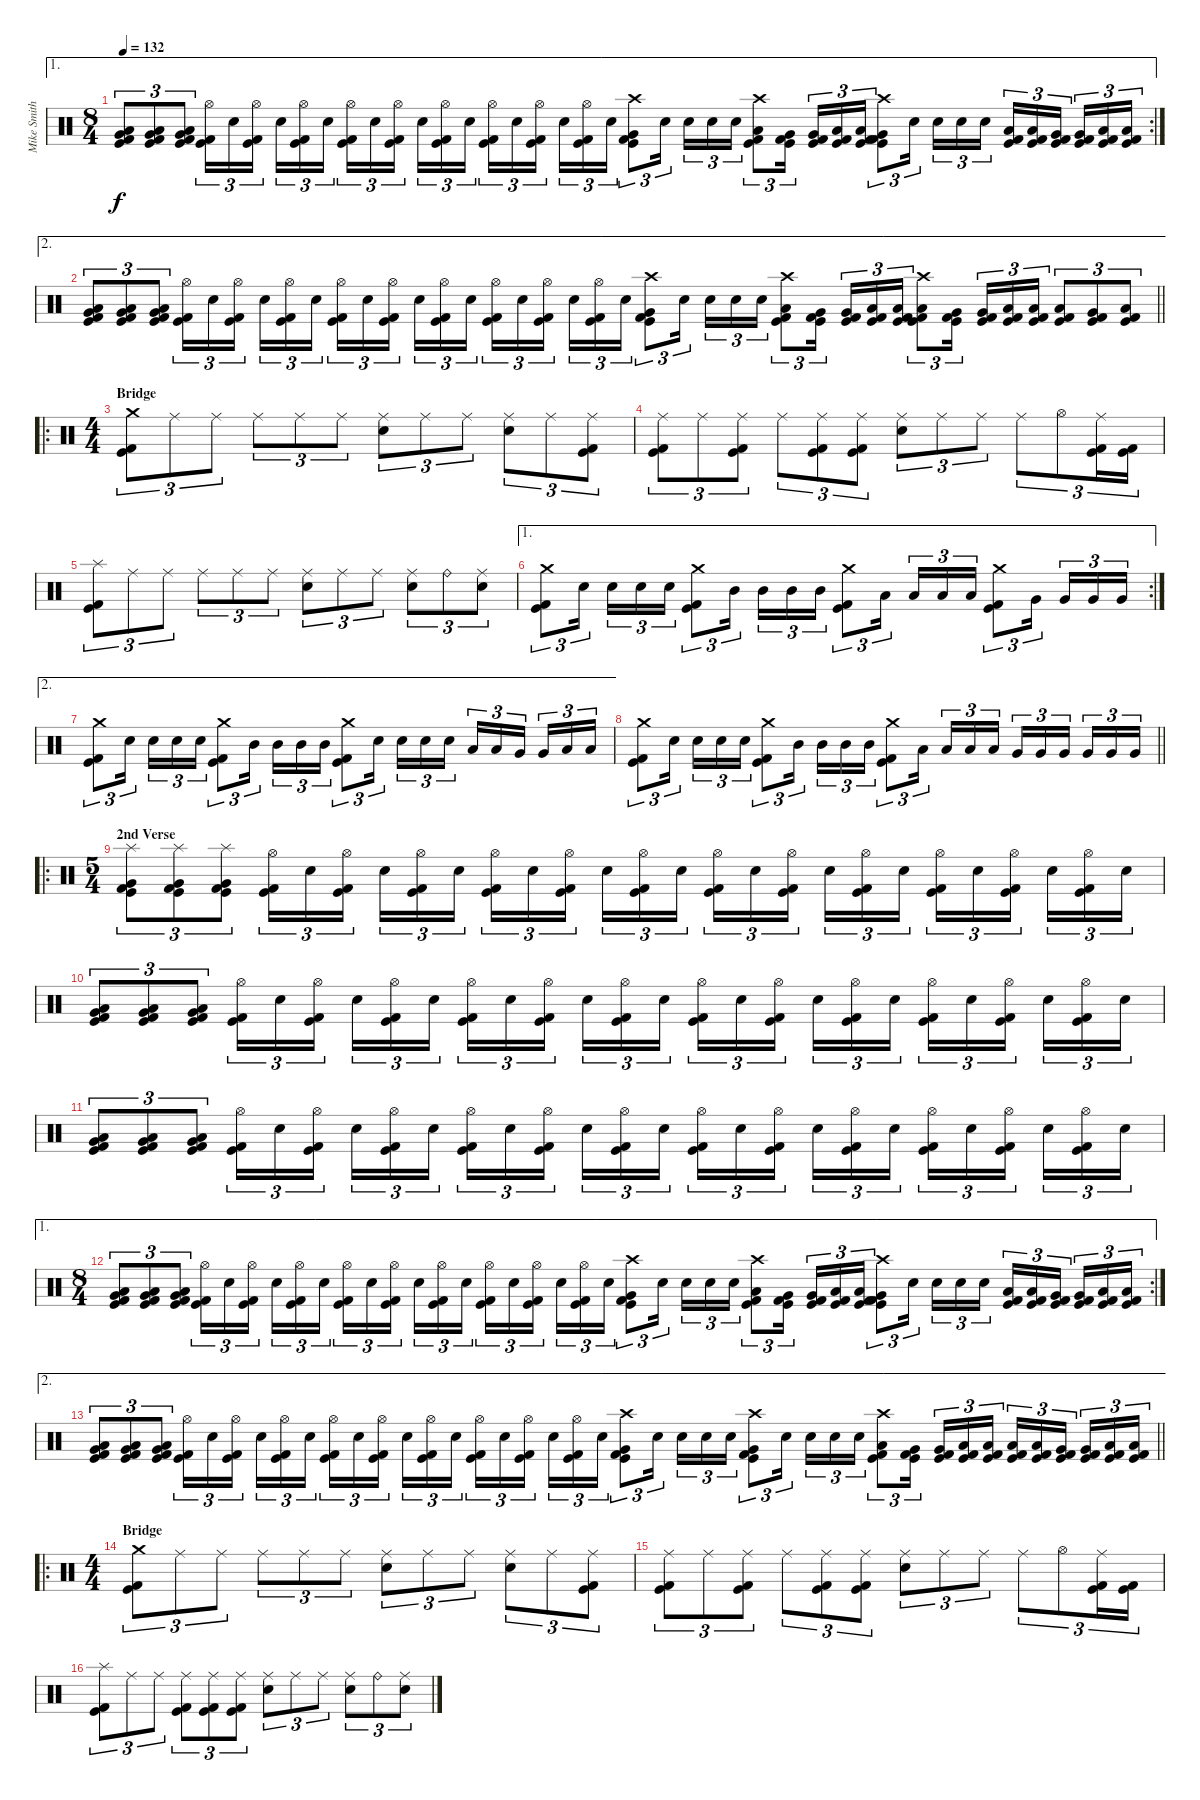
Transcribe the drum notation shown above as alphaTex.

\track ("Mike Smith" "Mike Smith") {instrument percussion}
\staff {score}
\articulation defaults
\ae 1
\rc 2
\ts (8 4)
\tempo 132
\clef neutral
\ks c
("Very Low Tom (hit)" "Low Floor Tom (hit)" "Kick (hit)" "Kick (hit) 2").8{tu (3 2) dy f} ("Very Low Tom (hit)" "Low Floor Tom (hit)" "Kick (hit)" "Kick (hit) 2").8{tu (3 2)} ("Very Low Tom (hit)" "Low Floor Tom (hit)" "Kick (hit)" "Kick (hit) 2").8{tu (3 2)} ("Hi-Hat (open)" "Kick (hit)" "Kick (hit) 2").16{tu (3 2)} "Electric Snare (hit)".16{tu (3 2)} ("Hi-Hat (open)" "Kick (hit)" "Kick (hit) 2").16{tu (3 2) beam splitsecondary} "Electric Snare (hit)".16{tu (3 2)} ("Hi-Hat (open)" "Kick (hit)" "Kick (hit) 2").16{tu (3 2)} "Electric Snare (hit)".16{tu (3 2)} ("Hi-Hat (open)" "Kick (hit)" "Kick (hit) 2").16{tu (3 2)} "Electric Snare (hit)".16{tu (3 2)} ("Hi-Hat (open)" "Kick (hit)" "Kick (hit) 2").16{tu (3 2) beam splitsecondary} "Electric Snare (hit)".16{tu (3 2)} ("Hi-Hat (open)" "Kick (hit)" "Kick (hit) 2").16{tu (3 2)} "Electric Snare (hit)".16{tu (3 2)} ("Hi-Hat (open)" "Kick (hit)" "Kick (hit) 2").16{tu (3 2)} "Electric Snare (hit)".16{tu (3 2)} ("Hi-Hat (open)" "Kick (hit)" "Kick (hit) 2").16{tu (3 2) beam splitsecondary} "Electric Snare (hit)".16{tu (3 2)} ("Hi-Hat (open)" "Kick (hit)" "Kick (hit) 2").16{tu (3 2)} "Electric Snare (hit)".16{tu (3 2)} ("Crash high (hit)" "Very Low Tom (hit)" "Kick (hit)" "Kick (hit) 2").8{tu (3 2)} "Electric Snare (hit)".16{tu (3 2) beam splitsecondary} "Electric Snare (hit)".16{tu (3 2)} "Electric Snare (hit)".16{tu (3 2)} "Electric Snare (hit)".16{tu (3 2)} ("Crash high (hit)" "Low Floor Tom (hit)" "Kick (hit)" "Kick (hit) 2").8{tu (3 2)} ("Very Low Tom (hit)" "Kick (hit)" "Kick (hit) 2").16{tu (3 2) beam splitsecondary} ("Very Low Tom (hit)" "Kick (hit)" "Kick (hit) 2").16{tu (3 2)} ("Low Floor Tom (hit)" "Kick (hit)" "Kick (hit) 2").16{tu (3 2)} ("Low Floor Tom (hit)" "Kick (hit)" "Kick (hit) 2").16{tu (3 2)} ("Crash high (hit)" "Very Low Tom (hit)" "Kick (hit)" "Kick (hit) 2").8{tu (3 2)} "Electric Snare (hit)".16{tu (3 2) beam splitsecondary} "Electric Snare (hit)".16{tu (3 2)} "Electric Snare (hit)".16{tu (3 2)} "Electric Snare (hit)".16{tu (3 2)} ("Low Tom (hit)" "Kick (hit)" "Kick (hit) 2").16{tu (3 2)} ("Low Tom (hit)" "Kick (hit)" "Kick (hit) 2").16{tu (3 2)} ("Very Low Tom (hit)" "Kick (hit)" "Kick (hit) 2").16{tu (3 2) beam splitsecondary} ("Very Low Tom (hit)" "Kick (hit)" "Kick (hit) 2").16{tu (3 2)} ("Low Floor Tom (hit)" "Kick (hit)" "Kick (hit) 2").16{tu (3 2)} ("Low Floor Tom (hit)" "Kick (hit)" "Kick (hit) 2").16{tu (3 2)} |
\ae 2
\barLineRight lightlight
("Very Low Tom (hit)" "Low Floor Tom (hit)" "Kick (hit)" "Kick (hit) 2").8{tu (3 2)} ("Very Low Tom (hit)" "Low Floor Tom (hit)" "Kick (hit)" "Kick (hit) 2").8{tu (3 2)} ("Very Low Tom (hit)" "Low Floor Tom (hit)" "Kick (hit)" "Kick (hit) 2").8{tu (3 2)} ("Hi-Hat (open)" "Kick (hit)" "Kick (hit) 2").16{tu (3 2)} "Electric Snare (hit)".16{tu (3 2)} ("Hi-Hat (open)" "Kick (hit)" "Kick (hit) 2").16{tu (3 2) beam splitsecondary} "Electric Snare (hit)".16{tu (3 2)} ("Hi-Hat (open)" "Kick (hit)" "Kick (hit) 2").16{tu (3 2)} "Electric Snare (hit)".16{tu (3 2)} ("Hi-Hat (open)" "Kick (hit)" "Kick (hit) 2").16{tu (3 2)} "Electric Snare (hit)".16{tu (3 2)} ("Hi-Hat (open)" "Kick (hit)" "Kick (hit) 2").16{tu (3 2) beam splitsecondary} "Electric Snare (hit)".16{tu (3 2)} ("Hi-Hat (open)" "Kick (hit)" "Kick (hit) 2").16{tu (3 2)} "Electric Snare (hit)".16{tu (3 2)} ("Hi-Hat (open)" "Kick (hit)" "Kick (hit) 2").16{tu (3 2)} "Electric Snare (hit)".16{tu (3 2)} ("Hi-Hat (open)" "Kick (hit)" "Kick (hit) 2").16{tu (3 2) beam splitsecondary} "Electric Snare (hit)".16{tu (3 2)} ("Hi-Hat (open)" "Kick (hit)" "Kick (hit) 2").16{tu (3 2)} "Electric Snare (hit)".16{tu (3 2)} ("Crash high (hit)" "Very Low Tom (hit)" "Kick (hit)" "Kick (hit) 2").8{tu (3 2)} "Electric Snare (hit)".16{tu (3 2) beam splitsecondary} "Electric Snare (hit)".16{tu (3 2)} "Electric Snare (hit)".16{tu (3 2)} "Electric Snare (hit)".16{tu (3 2)} ("Crash high (hit)" "Low Floor Tom (hit)" "Kick (hit)" "Kick (hit) 2").8{tu (3 2)} ("Very Low Tom (hit)" "Kick (hit)" "Kick (hit) 2").16{tu (3 2) beam splitsecondary} ("Very Low Tom (hit)" "Kick (hit)" "Kick (hit) 2").16{tu (3 2)} ("Low Floor Tom (hit)" "Kick (hit)" "Kick (hit) 2").16{tu (3 2)} ("Low Floor Tom (hit)" "Kick (hit)" "Kick (hit) 2").16{tu (3 2)} ("Crash high (hit)" "Low Floor Tom (hit)" "Kick (hit)" "Kick (hit) 2").8{tu (3 2)} ("Very Low Tom (hit)" "Kick (hit)" "Kick (hit) 2").16{tu (3 2) beam splitsecondary} ("Very Low Tom (hit)" "Kick (hit)" "Kick (hit) 2").16{tu (3 2)} ("Low Floor Tom (hit)" "Kick (hit)" "Kick (hit) 2").16{tu (3 2)} ("Low Floor Tom (hit)" "Kick (hit)" "Kick (hit) 2").16{tu (3 2)} ("Low Tom (hit)" "Kick (hit)" "Kick (hit) 2").8{tu (3 2)} ("Very Low Tom (hit)" "Kick (hit)" "Kick (hit) 2").8{tu (3 2)} ("Low Floor Tom (hit)" "Kick (hit)" "Kick (hit) 2").8{tu (3 2)} |
\ro
\ts (4 4)
\section ("" "Bridge")
("Crash medium (hit)" "Kick (hit)" "Kick (hit) 2").8{tu (3 2)} "Ride (middle)".8{tu (3 2)} "Ride (middle)".8{tu (3 2)} "Ride (middle)".8{tu (3 2)} "Ride (middle)".8{tu (3 2)} "Ride (middle)".8{tu (3 2)} ("Ride (middle)" "Electric Snare (hit)").8{tu (3 2)} "Ride (middle)".8{tu (3 2)} "Ride (middle)".8{tu (3 2)} ("Ride (middle)" "Electric Snare (hit)").8{tu (3 2)} "Ride (middle)".8{tu (3 2)} ("Ride (middle)" "Kick (hit) 2" "Kick (hit)").8{tu (3 2)} |
("Ride (middle)" "Kick (hit)" "Kick (hit) 2").8{tu (3 2)} "Ride (middle)".8{tu (3 2)} ("Ride (middle)" "Kick (hit)" "Kick (hit) 2").8{tu (3 2)} "Ride (middle)".8{tu (3 2)} ("Ride (middle)" "Kick (hit)" "Kick (hit) 2").8{tu (3 2)} ("Ride (middle)" "Kick (hit)" "Kick (hit) 2").8{tu (3 2)} ("Ride (middle)" "Electric Snare (hit)").8{tu (3 2)} "Ride (middle)".8{tu (3 2)} "Ride (middle)".8{tu (3 2)} "Ride (middle)".8{tu (3 2)} "Hi-Hat (open)".8{tu (3 2)} ("Ride (middle)" "Kick (hit)" "Kick (hit) 2").16{tu (3 2)} ("Kick (hit)" "Kick (hit) 2").16{tu (3 2)} |
("Splash (hit)" "Kick (hit)" "Kick (hit) 2").8{tu (3 2)} "Ride (middle)".8{tu (3 2)} "Ride (middle)".8{tu (3 2)} "Ride (middle)".8{tu (3 2)} "Ride (middle)".8{tu (3 2)} "Ride (middle)".8{tu (3 2)} ("Ride (middle)" "Electric Snare (hit)").8{tu (3 2)} "Ride (middle)".8{tu (3 2)} "Ride (middle)".8{tu (3 2)} ("Ride (middle)" "Electric Snare (hit)").8{tu (3 2)} "Ride (bell)".8{tu (3 2)} ("Ride (middle)" "Electric Snare (hit)").8{tu (3 2)} |
\ae 1
\rc 2
("Crash medium (hit)" "Kick (hit)" "Kick (hit) 2").8{tu (3 2)} "Electric Snare (hit)".16{tu (3 2) beam splitsecondary} "Electric Snare (hit)".16{tu (3 2)} "Electric Snare (hit)".16{tu (3 2)} "Electric Snare (hit)".16{tu (3 2)} ("Crash medium (hit)" "Kick (hit)" "Kick (hit) 2").8{tu (3 2)} "Mid Tom (hit)".16{tu (3 2) beam splitsecondary} "Mid Tom (hit)".16{tu (3 2)} "Mid Tom (hit)".16{tu (3 2)} "Mid Tom (hit)".16{tu (3 2)} ("Crash medium (hit)" "Kick (hit)" "Kick (hit) 2").8{tu (3 2)} "Low Tom (hit)".16{tu (3 2) beam splitsecondary} "Low Tom (hit)".16{tu (3 2)} "Low Tom (hit)".16{tu (3 2)} "Low Tom (hit)".16{tu (3 2)} ("Crash medium (hit)" "Kick (hit)" "Kick (hit) 2").8{tu (3 2)} "Very Low Tom (hit)".16{tu (3 2) beam splitsecondary} "Very Low Tom (hit)".16{tu (3 2)} "Very Low Tom (hit)".16{tu (3 2)} "Very Low Tom (hit)".16{tu (3 2)} |
\ae 2
("Crash medium (hit)" "Kick (hit)" "Kick (hit) 2").8{tu (3 2)} "Electric Snare (hit)".16{tu (3 2) beam splitsecondary} "Electric Snare (hit)".16{tu (3 2)} "Electric Snare (hit)".16{tu (3 2)} "Electric Snare (hit)".16{tu (3 2)} ("Crash medium (hit)" "Kick (hit)" "Kick (hit) 2").8{tu (3 2)} "Mid Tom (hit)".16{tu (3 2) beam splitsecondary} "Mid Tom (hit)".16{tu (3 2)} "Mid Tom (hit)".16{tu (3 2)} "Mid Tom (hit)".16{tu (3 2)} ("Crash medium (hit)" "Kick (hit)" "Kick (hit) 2").8{tu (3 2)} "Electric Snare (hit)".16{tu (3 2) beam splitsecondary} "Electric Snare (hit)".16{tu (3 2)} "Electric Snare (hit)".16{tu (3 2)} "Electric Snare (hit)".16{tu (3 2)} "Low Tom (hit)".16{tu (3 2)} "Low Tom (hit)".16{tu (3 2)} "Very Low Tom (hit)".16{tu (3 2) beam splitsecondary} "Very Low Tom (hit)".16{tu (3 2)} "Low Floor Tom (hit)".16{tu (3 2)} "Low Floor Tom (hit)".16{tu (3 2)} |
\barLineRight lightlight
("Crash medium (hit)" "Kick (hit)" "Kick (hit) 2").8{tu (3 2)} "Electric Snare (hit)".16{tu (3 2) beam splitsecondary} "Electric Snare (hit)".16{tu (3 2)} "Electric Snare (hit)".16{tu (3 2)} "Electric Snare (hit)".16{tu (3 2)} ("Crash medium (hit)" "Kick (hit)" "Kick (hit) 2").8{tu (3 2)} "Mid Tom (hit)".16{tu (3 2) beam splitsecondary} "Mid Tom (hit)".16{tu (3 2)} "Mid Tom (hit)".16{tu (3 2)} "Mid Tom (hit)".16{tu (3 2)} ("Crash medium (hit)" "Kick (hit)" "Kick (hit) 2").8{tu (3 2)} "Low Tom (hit)".16{tu (3 2) beam splitsecondary} "Low Tom (hit)".16{tu (3 2)} "Low Tom (hit)".16{tu (3 2)} "Low Tom (hit)".16{tu (3 2)} "Very Low Tom (hit)".16{tu (3 2)} "Very Low Tom (hit)".16{tu (3 2)} "Very Low Tom (hit)".16{tu (3 2) beam splitsecondary} "Very Low Tom (hit)".16{tu (3 2)} "Very Low Tom (hit)".16{tu (3 2)} "Very Low Tom (hit)".16{tu (3 2)} |
\ro
\ts (5 4)
\section ("" "2nd Verse")
("Splash (hit)" "Very Low Tom (hit)" "Kick (hit)" "Kick (hit) 2").8{tu (3 2)} ("Splash (hit)" "Very Low Tom (hit)" "Kick (hit)" "Kick (hit) 2").8{tu (3 2)} ("Splash (hit)" "Very Low Tom (hit)" "Kick (hit)" "Kick (hit) 2").8{tu (3 2)} ("Hi-Hat (open)" "Kick (hit)" "Kick (hit) 2").16{tu (3 2)} "Electric Snare (hit)".16{tu (3 2)} ("Hi-Hat (open)" "Kick (hit)" "Kick (hit) 2").16{tu (3 2) beam splitsecondary} "Electric Snare (hit)".16{tu (3 2)} ("Hi-Hat (open)" "Kick (hit)" "Kick (hit) 2").16{tu (3 2)} "Electric Snare (hit)".16{tu (3 2)} ("Hi-Hat (open)" "Kick (hit)" "Kick (hit) 2").16{tu (3 2)} "Electric Snare (hit)".16{tu (3 2)} ("Hi-Hat (open)" "Kick (hit)" "Kick (hit) 2").16{tu (3 2) beam splitsecondary} "Electric Snare (hit)".16{tu (3 2)} ("Hi-Hat (open)" "Kick (hit)" "Kick (hit) 2").16{tu (3 2)} "Electric Snare (hit)".16{tu (3 2)} ("Hi-Hat (open)" "Kick (hit)" "Kick (hit) 2").16{tu (3 2)} "Electric Snare (hit)".16{tu (3 2)} ("Hi-Hat (open)" "Kick (hit)" "Kick (hit) 2").16{tu (3 2) beam splitsecondary} "Electric Snare (hit)".16{tu (3 2)} ("Hi-Hat (open)" "Kick (hit)" "Kick (hit) 2").16{tu (3 2)} "Electric Snare (hit)".16{tu (3 2)} ("Hi-Hat (open)" "Kick (hit)" "Kick (hit) 2").16{tu (3 2)} "Electric Snare (hit)".16{tu (3 2)} ("Hi-Hat (open)" "Kick (hit)" "Kick (hit) 2").16{tu (3 2) beam splitsecondary} "Electric Snare (hit)".16{tu (3 2)} ("Hi-Hat (open)" "Kick (hit)" "Kick (hit) 2").16{tu (3 2)} "Electric Snare (hit)".16{tu (3 2)} |
("Very Low Tom (hit)" "Low Floor Tom (hit)" "Kick (hit)" "Kick (hit) 2").8{tu (3 2)} ("Very Low Tom (hit)" "Low Floor Tom (hit)" "Kick (hit)" "Kick (hit) 2").8{tu (3 2)} ("Very Low Tom (hit)" "Low Floor Tom (hit)" "Kick (hit)" "Kick (hit) 2").8{tu (3 2)} ("Hi-Hat (open)" "Kick (hit)" "Kick (hit) 2").16{tu (3 2)} "Electric Snare (hit)".16{tu (3 2)} ("Hi-Hat (open)" "Kick (hit)" "Kick (hit) 2").16{tu (3 2) beam splitsecondary} "Electric Snare (hit)".16{tu (3 2)} ("Hi-Hat (open)" "Kick (hit)" "Kick (hit) 2").16{tu (3 2)} "Electric Snare (hit)".16{tu (3 2)} ("Hi-Hat (open)" "Kick (hit)" "Kick (hit) 2").16{tu (3 2)} "Electric Snare (hit)".16{tu (3 2)} ("Hi-Hat (open)" "Kick (hit)" "Kick (hit) 2").16{tu (3 2) beam splitsecondary} "Electric Snare (hit)".16{tu (3 2)} ("Hi-Hat (open)" "Kick (hit)" "Kick (hit) 2").16{tu (3 2)} "Electric Snare (hit)".16{tu (3 2)} ("Hi-Hat (open)" "Kick (hit)" "Kick (hit) 2").16{tu (3 2)} "Electric Snare (hit)".16{tu (3 2)} ("Hi-Hat (open)" "Kick (hit)" "Kick (hit) 2").16{tu (3 2) beam splitsecondary} "Electric Snare (hit)".16{tu (3 2)} ("Hi-Hat (open)" "Kick (hit)" "Kick (hit) 2").16{tu (3 2)} "Electric Snare (hit)".16{tu (3 2)} ("Hi-Hat (open)" "Kick (hit)" "Kick (hit) 2").16{tu (3 2)} "Electric Snare (hit)".16{tu (3 2)} ("Hi-Hat (open)" "Kick (hit)" "Kick (hit) 2").16{tu (3 2) beam splitsecondary} "Electric Snare (hit)".16{tu (3 2)} ("Hi-Hat (open)" "Kick (hit)" "Kick (hit) 2").16{tu (3 2)} "Electric Snare (hit)".16{tu (3 2)} |
("Very Low Tom (hit)" "Low Floor Tom (hit)" "Kick (hit)" "Kick (hit) 2").8{tu (3 2)} ("Very Low Tom (hit)" "Low Floor Tom (hit)" "Kick (hit)" "Kick (hit) 2").8{tu (3 2)} ("Very Low Tom (hit)" "Low Floor Tom (hit)" "Kick (hit)" "Kick (hit) 2").8{tu (3 2)} ("Hi-Hat (open)" "Kick (hit)" "Kick (hit) 2").16{tu (3 2)} "Electric Snare (hit)".16{tu (3 2)} ("Hi-Hat (open)" "Kick (hit)" "Kick (hit) 2").16{tu (3 2) beam splitsecondary} "Electric Snare (hit)".16{tu (3 2)} ("Hi-Hat (open)" "Kick (hit)" "Kick (hit) 2").16{tu (3 2)} "Electric Snare (hit)".16{tu (3 2)} ("Hi-Hat (open)" "Kick (hit)" "Kick (hit) 2").16{tu (3 2)} "Electric Snare (hit)".16{tu (3 2)} ("Hi-Hat (open)" "Kick (hit)" "Kick (hit) 2").16{tu (3 2) beam splitsecondary} "Electric Snare (hit)".16{tu (3 2)} ("Hi-Hat (open)" "Kick (hit)" "Kick (hit) 2").16{tu (3 2)} "Electric Snare (hit)".16{tu (3 2)} ("Hi-Hat (open)" "Kick (hit)" "Kick (hit) 2").16{tu (3 2)} "Electric Snare (hit)".16{tu (3 2)} ("Hi-Hat (open)" "Kick (hit)" "Kick (hit) 2").16{tu (3 2) beam splitsecondary} "Electric Snare (hit)".16{tu (3 2)} ("Hi-Hat (open)" "Kick (hit)" "Kick (hit) 2").16{tu (3 2)} "Electric Snare (hit)".16{tu (3 2)} ("Hi-Hat (open)" "Kick (hit)" "Kick (hit) 2").16{tu (3 2)} "Electric Snare (hit)".16{tu (3 2)} ("Hi-Hat (open)" "Kick (hit)" "Kick (hit) 2").16{tu (3 2) beam splitsecondary} "Electric Snare (hit)".16{tu (3 2)} ("Hi-Hat (open)" "Kick (hit)" "Kick (hit) 2").16{tu (3 2)} "Electric Snare (hit)".16{tu (3 2)} |
\ae 1
\rc 2
\ts (8 4)
("Very Low Tom (hit)" "Low Floor Tom (hit)" "Kick (hit)" "Kick (hit) 2").8{tu (3 2)} ("Very Low Tom (hit)" "Low Floor Tom (hit)" "Kick (hit)" "Kick (hit) 2").8{tu (3 2)} ("Very Low Tom (hit)" "Low Floor Tom (hit)" "Kick (hit)" "Kick (hit) 2").8{tu (3 2)} ("Hi-Hat (open)" "Kick (hit)" "Kick (hit) 2").16{tu (3 2)} "Electric Snare (hit)".16{tu (3 2)} ("Hi-Hat (open)" "Kick (hit)" "Kick (hit) 2").16{tu (3 2) beam splitsecondary} "Electric Snare (hit)".16{tu (3 2)} ("Hi-Hat (open)" "Kick (hit)" "Kick (hit) 2").16{tu (3 2)} "Electric Snare (hit)".16{tu (3 2)} ("Hi-Hat (open)" "Kick (hit)" "Kick (hit) 2").16{tu (3 2)} "Electric Snare (hit)".16{tu (3 2)} ("Hi-Hat (open)" "Kick (hit)" "Kick (hit) 2").16{tu (3 2) beam splitsecondary} "Electric Snare (hit)".16{tu (3 2)} ("Hi-Hat (open)" "Kick (hit)" "Kick (hit) 2").16{tu (3 2)} "Electric Snare (hit)".16{tu (3 2)} ("Hi-Hat (open)" "Kick (hit)" "Kick (hit) 2").16{tu (3 2)} "Electric Snare (hit)".16{tu (3 2)} ("Hi-Hat (open)" "Kick (hit)" "Kick (hit) 2").16{tu (3 2) beam splitsecondary} "Electric Snare (hit)".16{tu (3 2)} ("Hi-Hat (open)" "Kick (hit)" "Kick (hit) 2").16{tu (3 2)} "Electric Snare (hit)".16{tu (3 2)} ("Crash high (hit)" "Very Low Tom (hit)" "Kick (hit)" "Kick (hit) 2").8{tu (3 2)} "Electric Snare (hit)".16{tu (3 2) beam splitsecondary} "Electric Snare (hit)".16{tu (3 2)} "Electric Snare (hit)".16{tu (3 2)} "Electric Snare (hit)".16{tu (3 2)} ("Crash high (hit)" "Low Floor Tom (hit)" "Kick (hit)" "Kick (hit) 2").8{tu (3 2)} ("Very Low Tom (hit)" "Kick (hit)" "Kick (hit) 2").16{tu (3 2) beam splitsecondary} ("Very Low Tom (hit)" "Kick (hit)" "Kick (hit) 2").16{tu (3 2)} ("Low Floor Tom (hit)" "Kick (hit)" "Kick (hit) 2").16{tu (3 2)} ("Low Floor Tom (hit)" "Kick (hit)" "Kick (hit) 2").16{tu (3 2)} ("Crash high (hit)" "Very Low Tom (hit)" "Kick (hit)" "Kick (hit) 2").8{tu (3 2)} "Electric Snare (hit)".16{tu (3 2) beam splitsecondary} "Electric Snare (hit)".16{tu (3 2)} "Electric Snare (hit)".16{tu (3 2)} "Electric Snare (hit)".16{tu (3 2)} ("Low Tom (hit)" "Kick (hit)" "Kick (hit) 2").16{tu (3 2)} ("Low Tom (hit)" "Kick (hit)" "Kick (hit) 2").16{tu (3 2)} ("Very Low Tom (hit)" "Kick (hit)" "Kick (hit) 2").16{tu (3 2) beam splitsecondary} ("Very Low Tom (hit)" "Kick (hit)" "Kick (hit) 2").16{tu (3 2)} ("Low Floor Tom (hit)" "Kick (hit)" "Kick (hit) 2").16{tu (3 2)} ("Low Floor Tom (hit)" "Kick (hit)" "Kick (hit) 2").16{tu (3 2)} |
\ae 2
\barLineRight lightlight
("Very Low Tom (hit)" "Low Floor Tom (hit)" "Kick (hit)" "Kick (hit) 2").8{tu (3 2)} ("Very Low Tom (hit)" "Low Floor Tom (hit)" "Kick (hit)" "Kick (hit) 2").8{tu (3 2)} ("Very Low Tom (hit)" "Low Floor Tom (hit)" "Kick (hit)" "Kick (hit) 2").8{tu (3 2)} ("Hi-Hat (open)" "Kick (hit)" "Kick (hit) 2").16{tu (3 2)} "Electric Snare (hit)".16{tu (3 2)} ("Hi-Hat (open)" "Kick (hit)" "Kick (hit) 2").16{tu (3 2) beam splitsecondary} "Electric Snare (hit)".16{tu (3 2)} ("Hi-Hat (open)" "Kick (hit)" "Kick (hit) 2").16{tu (3 2)} "Electric Snare (hit)".16{tu (3 2)} ("Hi-Hat (open)" "Kick (hit)" "Kick (hit) 2").16{tu (3 2)} "Electric Snare (hit)".16{tu (3 2)} ("Hi-Hat (open)" "Kick (hit)" "Kick (hit) 2").16{tu (3 2) beam splitsecondary} "Electric Snare (hit)".16{tu (3 2)} ("Hi-Hat (open)" "Kick (hit)" "Kick (hit) 2").16{tu (3 2)} "Electric Snare (hit)".16{tu (3 2)} ("Hi-Hat (open)" "Kick (hit)" "Kick (hit) 2").16{tu (3 2)} "Electric Snare (hit)".16{tu (3 2)} ("Hi-Hat (open)" "Kick (hit)" "Kick (hit) 2").16{tu (3 2) beam splitsecondary} "Electric Snare (hit)".16{tu (3 2)} ("Hi-Hat (open)" "Kick (hit)" "Kick (hit) 2").16{tu (3 2)} "Electric Snare (hit)".16{tu (3 2)} ("Crash high (hit)" "Very Low Tom (hit)" "Kick (hit)" "Kick (hit) 2").8{tu (3 2)} "Electric Snare (hit)".16{tu (3 2) beam splitsecondary} "Electric Snare (hit)".16{tu (3 2)} "Electric Snare (hit)".16{tu (3 2)} "Electric Snare (hit)".16{tu (3 2)} ("Crash high (hit)" "Very Low Tom (hit)" "Kick (hit)" "Kick (hit) 2").8{tu (3 2)} "Electric Snare (hit)".16{tu (3 2) beam splitsecondary} "Electric Snare (hit)".16{tu (3 2)} "Electric Snare (hit)".16{tu (3 2)} "Electric Snare (hit)".16{tu (3 2)} ("Crash high (hit)" "Low Floor Tom (hit)" "Kick (hit)" "Kick (hit) 2").8{tu (3 2)} ("Very Low Tom (hit)" "Kick (hit)" "Kick (hit) 2").16{tu (3 2) beam splitsecondary} ("Very Low Tom (hit)" "Kick (hit)" "Kick (hit) 2").16{tu (3 2)} ("Low Floor Tom (hit)" "Kick (hit)" "Kick (hit) 2").16{tu (3 2)} ("Low Floor Tom (hit)" "Kick (hit)" "Kick (hit) 2").16{tu (3 2)} ("Low Tom (hit)" "Kick (hit)" "Kick (hit) 2").16{tu (3 2)} ("Low Tom (hit)" "Kick (hit)" "Kick (hit) 2").16{tu (3 2)} ("Very Low Tom (hit)" "Kick (hit)" "Kick (hit) 2").16{tu (3 2) beam splitsecondary} ("Very Low Tom (hit)" "Kick (hit)" "Kick (hit) 2").16{tu (3 2)} ("Low Floor Tom (hit)" "Kick (hit)" "Kick (hit) 2").16{tu (3 2)} ("Low Floor Tom (hit)" "Kick (hit)" "Kick (hit) 2").16{tu (3 2)} |
\ro
\ts (4 4)
\section ("" "Bridge")
("Crash medium (hit)" "Kick (hit)" "Kick (hit) 2").8{tu (3 2)} "Ride (middle)".8{tu (3 2)} "Ride (middle)".8{tu (3 2)} "Ride (middle)".8{tu (3 2)} "Ride (middle)".8{tu (3 2)} "Ride (middle)".8{tu (3 2)} ("Ride (middle)" "Electric Snare (hit)").8{tu (3 2)} "Ride (middle)".8{tu (3 2)} "Ride (middle)".8{tu (3 2)} ("Ride (middle)" "Electric Snare (hit)").8{tu (3 2)} "Ride (middle)".8{tu (3 2)} ("Ride (middle)" "Kick (hit) 2" "Kick (hit)").8{tu (3 2)} |
("Ride (middle)" "Kick (hit)" "Kick (hit) 2").8{tu (3 2)} "Ride (middle)".8{tu (3 2)} ("Ride (middle)" "Kick (hit)" "Kick (hit) 2").8{tu (3 2)} "Ride (middle)".8{tu (3 2)} ("Ride (middle)" "Kick (hit)" "Kick (hit) 2").8{tu (3 2)} ("Ride (middle)" "Kick (hit)" "Kick (hit) 2").8{tu (3 2)} ("Ride (middle)" "Electric Snare (hit)").8{tu (3 2)} "Ride (middle)".8{tu (3 2)} "Ride (middle)".8{tu (3 2)} "Ride (middle)".8{tu (3 2)} "Hi-Hat (open)".8{tu (3 2)} ("Ride (middle)" "Kick (hit)" "Kick (hit) 2").16{tu (3 2)} ("Kick (hit)" "Kick (hit) 2").16{tu (3 2)} |
("Splash (hit)" "Kick (hit)" "Kick (hit) 2").8{tu (3 2)} "Ride (middle)".8{tu (3 2)} "Ride (middle)".8{tu (3 2)} ("Ride (middle)" "Kick (hit)" "Kick (hit) 2").8{tu (3 2)} ("Ride (middle)" "Kick (hit)" "Kick (hit) 2").8{tu (3 2)} ("Ride (middle)" "Kick (hit)" "Kick (hit) 2").8{tu (3 2)} ("Ride (middle)" "Electric Snare (hit)").8{tu (3 2)} "Ride (middle)".8{tu (3 2)} "Ride (middle)".8{tu (3 2)} ("Ride (middle)" "Electric Snare (hit)").8{tu (3 2)} "Ride (bell)".8{tu (3 2)} ("Ride (middle)" "Electric Snare (hit)").8{tu (3 2)}
